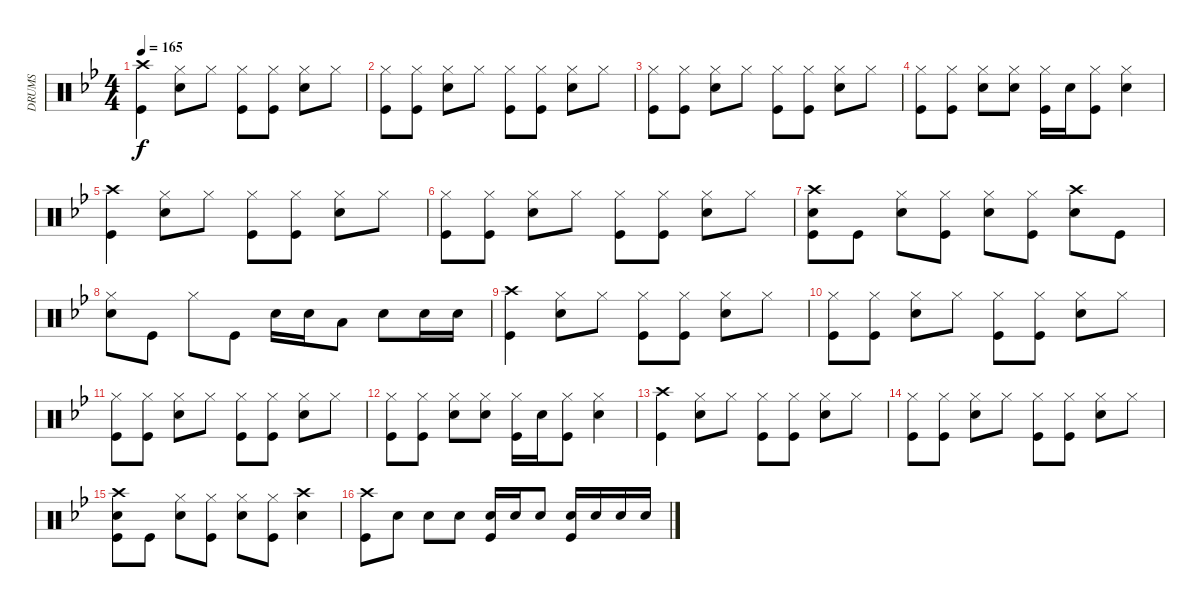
\track ("DRUMS" "DRUMS") {instrument percussion}
\staff {score}
\articulation defaults
\ts (4 4)
\tempo 165
\clef neutral
\ks bb
("Crash high (hit)" "Kick (hit)").4{dy f} ("Hi-Hat (closed)" "Electric Snare (hit)").8 "Hi-Hat (closed)".8 ("Hi-Hat (closed)" "Kick (hit)").8 ("Hi-Hat (closed)" "Kick (hit)").8 ("Hi-Hat (closed)" "Electric Snare (hit)").8 "Hi-Hat (closed)".8 |
("Hi-Hat (closed)" "Kick (hit)").8 ("Hi-Hat (closed)" "Kick (hit)").8 ("Hi-Hat (closed)" "Electric Snare (hit)").8 "Hi-Hat (closed)".8 ("Hi-Hat (closed)" "Kick (hit)").8 ("Hi-Hat (closed)" "Kick (hit)").8 ("Hi-Hat (closed)" "Electric Snare (hit)").8 "Hi-Hat (closed)".8 |
("Hi-Hat (closed)" "Kick (hit)").8 ("Hi-Hat (closed)" "Kick (hit)").8 ("Hi-Hat (closed)" "Electric Snare (hit)").8 "Hi-Hat (closed)".8 ("Hi-Hat (closed)" "Kick (hit)").8 ("Hi-Hat (closed)" "Kick (hit)").8 ("Hi-Hat (closed)" "Electric Snare (hit)").8 "Hi-Hat (closed)".8 |
("Hi-Hat (closed)" "Kick (hit)").8 ("Hi-Hat (closed)" "Kick (hit)").8 ("Hi-Hat (closed)" "Electric Snare (hit)").8 ("Hi-Hat (closed)" "Electric Snare (hit)").8 ("Hi-Hat (closed)" "Kick (hit)").16 "Electric Snare (hit)".16 ("Hi-Hat (closed)" "Kick (hit)").8 ("Hi-Hat (closed)" "Electric Snare (hit)").4 |
("Crash high (hit)" "Kick (hit)").4 ("Hi-Hat (closed)" "Electric Snare (hit)").8 "Hi-Hat (closed)".8 ("Hi-Hat (closed)" "Kick (hit)").8 ("Hi-Hat (closed)" "Kick (hit)").8 ("Hi-Hat (closed)" "Electric Snare (hit)").8 "Hi-Hat (closed)".8 |
("Hi-Hat (closed)" "Kick (hit)").8 ("Hi-Hat (closed)" "Kick (hit)").8 ("Hi-Hat (closed)" "Electric Snare (hit)").8 "Hi-Hat (closed)".8 ("Hi-Hat (closed)" "Kick (hit)").8 ("Hi-Hat (closed)" "Kick (hit)").8 ("Hi-Hat (closed)" "Electric Snare (hit)").8 "Hi-Hat (closed)".8 |
("Crash high (hit)" "Electric Snare (hit)" "Kick (hit)").8 "Kick (hit)".8 ("Hi-Hat (closed)" "Electric Snare (hit)").8 ("Hi-Hat (closed)" "Kick (hit)").8 ("Hi-Hat (closed)" "Electric Snare (hit)").8 ("Hi-Hat (closed)" "Kick (hit)").8 ("Crash high (hit)" "Electric Snare (hit)").8 "Kick (hit)".8 |
("Hi-Hat (closed)" "Electric Snare (hit)").8 "Kick (hit)".8 "Hi-Hat (closed)".8 "Kick (hit)".8 "Electric Snare (hit)".16 "Electric Snare (hit)".16 "Low Tom (hit)".8 "Electric Snare (hit)".8 "Electric Snare (hit)".16 "Electric Snare (hit)".16 |
("Crash high (hit)" "Kick (hit)").4 ("Hi-Hat (closed)" "Electric Snare (hit)").8 "Hi-Hat (closed)".8 ("Hi-Hat (closed)" "Kick (hit)").8 ("Hi-Hat (closed)" "Kick (hit)").8 ("Hi-Hat (closed)" "Electric Snare (hit)").8 "Hi-Hat (closed)".8 |
("Hi-Hat (closed)" "Kick (hit)").8 ("Hi-Hat (closed)" "Kick (hit)").8 ("Hi-Hat (closed)" "Electric Snare (hit)").8 "Hi-Hat (closed)".8 ("Hi-Hat (closed)" "Kick (hit)").8 ("Hi-Hat (closed)" "Kick (hit)").8 ("Hi-Hat (closed)" "Electric Snare (hit)").8 "Hi-Hat (closed)".8 |
("Hi-Hat (closed)" "Kick (hit)").8 ("Hi-Hat (closed)" "Kick (hit)").8 ("Hi-Hat (closed)" "Electric Snare (hit)").8 "Hi-Hat (closed)".8 ("Hi-Hat (closed)" "Kick (hit)").8 ("Hi-Hat (closed)" "Kick (hit)").8 ("Hi-Hat (closed)" "Electric Snare (hit)").8 "Hi-Hat (closed)".8 |
("Hi-Hat (closed)" "Kick (hit)").8 ("Hi-Hat (closed)" "Kick (hit)").8 ("Hi-Hat (closed)" "Electric Snare (hit)").8 ("Hi-Hat (closed)" "Electric Snare (hit)").8 ("Hi-Hat (closed)" "Kick (hit)").16 "Electric Snare (hit)".16 ("Hi-Hat (closed)" "Kick (hit)").8 ("Hi-Hat (closed)" "Electric Snare (hit)").4 |
("Crash high (hit)" "Kick (hit)").4 ("Hi-Hat (closed)" "Electric Snare (hit)").8 "Hi-Hat (closed)".8 ("Hi-Hat (closed)" "Kick (hit)").8 ("Hi-Hat (closed)" "Kick (hit)").8 ("Hi-Hat (closed)" "Electric Snare (hit)").8 "Hi-Hat (closed)".8 |
("Hi-Hat (closed)" "Kick (hit)").8 ("Hi-Hat (closed)" "Kick (hit)").8 ("Hi-Hat (closed)" "Electric Snare (hit)").8 "Hi-Hat (closed)".8 ("Hi-Hat (closed)" "Kick (hit)").8 ("Hi-Hat (closed)" "Kick (hit)").8 ("Hi-Hat (closed)" "Electric Snare (hit)").8 "Hi-Hat (closed)".8 |
("Crash high (hit)" "Electric Snare (hit)" "Kick (hit)").8 "Kick (hit)".8 ("Hi-Hat (closed)" "Electric Snare (hit)").8 ("Hi-Hat (closed)" "Kick (hit)").8 ("Hi-Hat (closed)" "Electric Snare (hit)").8 ("Hi-Hat (closed)" "Kick (hit)").8 ("Crash high (hit)" "Electric Snare (hit)").4 |
("Crash high (hit)" "Kick (hit)").8 "Electric Snare (hit)".8 "Electric Snare (hit)".8 "Electric Snare (hit)".8 ("Electric Snare (hit)" "Kick (hit)").16 "Electric Snare (hit)".16 "Electric Snare (hit)".8 ("Electric Snare (hit)" "Kick (hit)").16 "Electric Snare (hit)".16 "Electric Snare (hit)".16 "Electric Snare (hit)".16
